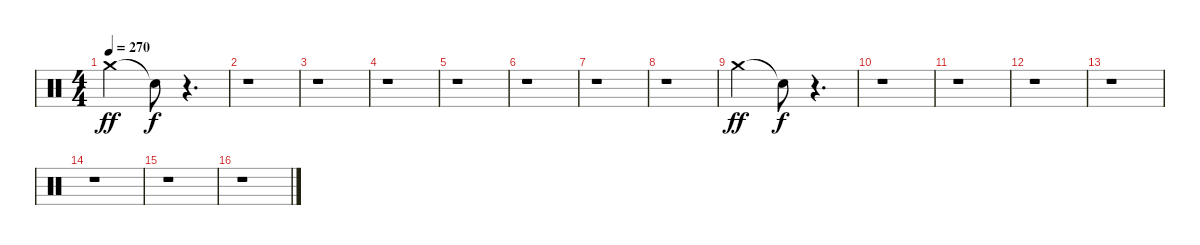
\track "" {instrument percussion}
\staff {score}
\articulation defaults
\ts (4 4)
\tempo 270
\clef neutral
\ks c "Crash medium (hit)".2{dy ff} "Snare (hit)"{t}.8{dy f}
r.4{d} |
r.1 |
r.1 |
r.1 |
r.1 |
r.1 |
r.1 |
r.1 |
"Crash medium (hit)".2{dy ff} "Snare (hit)"{t}.8{dy f} r.4{d} |
r.1 |
r.1 |
r.1 |
r.1 |
r.1 |
r.1 |
r.1
